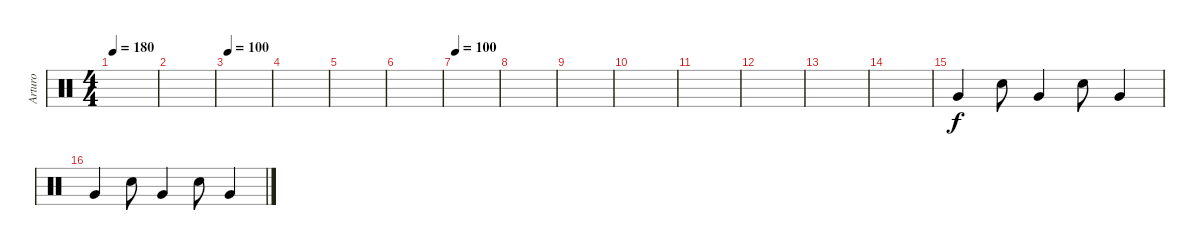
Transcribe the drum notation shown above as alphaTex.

\track ("Arturo" "Arturo") {instrument percussion}
\staff {score}
\articulation defaults
\ts (4 4)
\tempo 180
\clef neutral
\ks c
|
|
\tempo 100
|
|
|
|
\tempo 100
|
|
|
|
|
|
|
|
"Very Low Tom (hit)".4 "Electric Snare (hit)".8 "Very Low Tom (hit)".4 "Electric Snare (hit)".8 "Very Low Tom (hit)".4 |
"Very Low Tom (hit)".4 "Electric Snare (hit)".8 "Very Low Tom (hit)".4 "Electric Snare (hit)".8 "Very Low Tom (hit)".4
